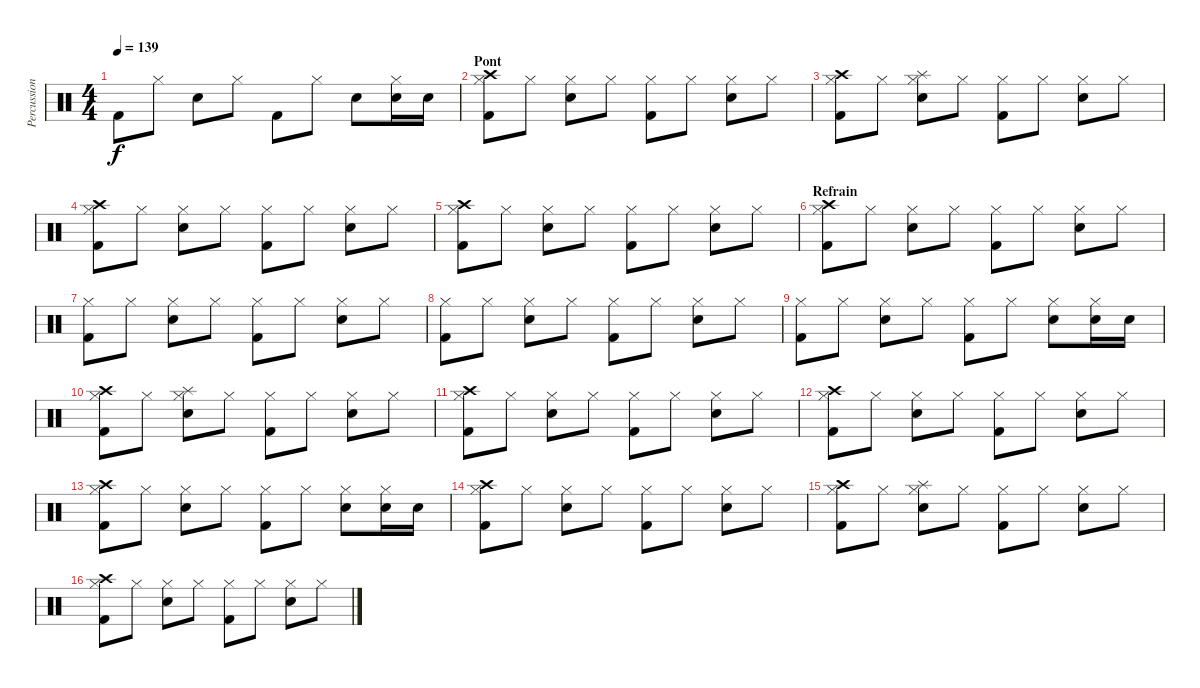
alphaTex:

\track ("Percussions" "Percussion") {instrument percussion}
\staff {score}
\articulation defaults
\ts (4 4)
\tempo 139
\clef neutral
\ks c "Kick (hit) 2".8{dy f} "Hi-Hat (closed)".8 "Snare (hit) 2".8 "Hi-Hat (closed)".8 "Kick (hit) 2".8 "Hi-Hat (closed)".8 "Snare (hit) 2".8
("Hi-Hat (closed)" "Snare (hit) 2").16 "Snare (hit) 2".16 |
\section ("" "Pont")
("Hi-Hat (closed)" "Crash high (hit)" "Kick (hit) 2").8 "Hi-Hat (closed)".8 ("Hi-Hat (closed)" "Snare (hit) 2").8 "Hi-Hat (closed)".8 ("Hi-Hat (closed)" "Kick (hit) 2").8 "Hi-Hat (closed)".8 ("Hi-Hat (closed)" "Snare (hit) 2").8 "Hi-Hat (closed)".8 |
("Hi-Hat (closed)" "Crash high (hit)" "Kick (hit) 2").8 "Hi-Hat (closed)".8 ("Hi-Hat (closed)" "Splash (hit)" "Snare (hit) 2").8 "Hi-Hat (closed)".8 ("Hi-Hat (closed)" "Kick (hit) 2").8 "Hi-Hat (closed)".8 ("Hi-Hat (closed)" "Snare (hit) 2").8 "Hi-Hat (closed)".8 |
("Hi-Hat (closed)" "Crash high (hit)" "Kick (hit) 2").8 "Hi-Hat (closed)".8 ("Hi-Hat (closed)" "Snare (hit) 2").8 "Hi-Hat (closed)".8 ("Hi-Hat (closed)" "Kick (hit) 2").8 "Hi-Hat (closed)".8 ("Hi-Hat (closed)" "Snare (hit) 2").8 "Hi-Hat (closed)".8 |
("Hi-Hat (closed)" "Crash high (hit)" "Kick (hit) 2").8 "Hi-Hat (closed)".8 ("Hi-Hat (closed)" "Snare (hit) 2").8 "Hi-Hat (closed)".8 ("Hi-Hat (closed)" "Kick (hit) 2").8 "Hi-Hat (closed)".8 ("Hi-Hat (closed)" "Snare (hit) 2").8 "Hi-Hat (closed)".8 |
\section ("" "Refrain")
("Hi-Hat (closed)" "Crash high (hit)" "Kick (hit) 2").8 "Hi-Hat (closed)".8 ("Hi-Hat (closed)" "Snare (hit) 2").8 "Hi-Hat (closed)".8 ("Hi-Hat (closed)" "Kick (hit) 2").8 "Hi-Hat (closed)".8 ("Hi-Hat (closed)" "Snare (hit) 2").8 "Hi-Hat (closed)".8 |
("Hi-Hat (closed)" "Kick (hit) 2").8 "Hi-Hat (closed)".8 ("Hi-Hat (closed)" "Snare (hit) 2").8 "Hi-Hat (closed)".8 ("Hi-Hat (closed)" "Kick (hit) 2").8 "Hi-Hat (closed)".8 ("Hi-Hat (closed)" "Snare (hit) 2").8 "Hi-Hat (closed)".8 |
("Hi-Hat (closed)" "Kick (hit) 2").8 "Hi-Hat (closed)".8 ("Hi-Hat (closed)" "Snare (hit) 2").8 "Hi-Hat (closed)".8 ("Hi-Hat (closed)" "Kick (hit) 2").8 "Hi-Hat (closed)".8 ("Hi-Hat (closed)" "Snare (hit) 2").8 "Hi-Hat (closed)".8 |
("Hi-Hat (closed)" "Kick (hit) 2").8 "Hi-Hat (closed)".8 ("Hi-Hat (closed)" "Snare (hit) 2").8 "Hi-Hat (closed)".8 ("Hi-Hat (closed)" "Kick (hit) 2").8 "Hi-Hat (closed)".8 ("Hi-Hat (closed)" "Snare (hit) 2").8 ("Hi-Hat (closed)" "Snare (hit) 2").16 "Snare (hit) 2".16 |
("Hi-Hat (closed)" "Crash high (hit)" "Kick (hit) 2").8 "Hi-Hat (closed)".8 ("Hi-Hat (closed)" "Splash (hit)" "Snare (hit) 2").8 "Hi-Hat (closed)".8 ("Hi-Hat (closed)" "Kick (hit) 2").8 "Hi-Hat (closed)".8 ("Hi-Hat (closed)" "Snare (hit) 2").8 "Hi-Hat (closed)".8 |
("Hi-Hat (closed)" "Crash high (hit)" "Kick (hit) 2").8 "Hi-Hat (closed)".8 ("Hi-Hat (closed)" "Snare (hit) 2").8 "Hi-Hat (closed)".8 ("Hi-Hat (closed)" "Kick (hit) 2").8 "Hi-Hat (closed)".8 ("Hi-Hat (closed)" "Snare (hit) 2").8 "Hi-Hat (closed)".8 |
("Hi-Hat (closed)" "Crash high (hit)" "Kick (hit) 2").8 "Hi-Hat (closed)".8 ("Hi-Hat (closed)" "Snare (hit) 2").8 "Hi-Hat (closed)".8 ("Hi-Hat (closed)" "Kick (hit) 2").8 "Hi-Hat (closed)".8 ("Hi-Hat (closed)" "Snare (hit) 2").8 "Hi-Hat (closed)".8 |
("Hi-Hat (closed)" "Crash high (hit)" "Kick (hit) 2").8 "Hi-Hat (closed)".8 ("Hi-Hat (closed)" "Snare (hit) 2").8 "Hi-Hat (closed)".8 ("Hi-Hat (closed)" "Kick (hit) 2").8 "Hi-Hat (closed)".8 ("Hi-Hat (closed)" "Snare (hit) 2").8 ("Hi-Hat (closed)" "Snare (hit) 2").16 "Snare (hit) 2".16 |
("Hi-Hat (closed)" "Crash high (hit)" "Kick (hit) 2").8 "Hi-Hat (closed)".8 ("Hi-Hat (closed)" "Snare (hit) 2").8 "Hi-Hat (closed)".8 ("Hi-Hat (closed)" "Kick (hit) 2").8 "Hi-Hat (closed)".8 ("Hi-Hat (closed)" "Snare (hit) 2").8 "Hi-Hat (closed)".8 |
("Hi-Hat (closed)" "Crash high (hit)" "Kick (hit) 2").8 "Hi-Hat (closed)".8 ("Hi-Hat (closed)" "Splash (hit)" "Snare (hit) 2").8 "Hi-Hat (closed)".8 ("Hi-Hat (closed)" "Kick (hit) 2").8 "Hi-Hat (closed)".8 ("Hi-Hat (closed)" "Snare (hit) 2").8 "Hi-Hat (closed)".8 |
("Hi-Hat (closed)" "Crash high (hit)" "Kick (hit) 2").8 "Hi-Hat (closed)".8 ("Hi-Hat (closed)" "Snare (hit) 2").8 "Hi-Hat (closed)".8 ("Hi-Hat (closed)" "Kick (hit) 2").8 "Hi-Hat (closed)".8 ("Hi-Hat (closed)" "Snare (hit) 2").8 "Hi-Hat (closed)".8
